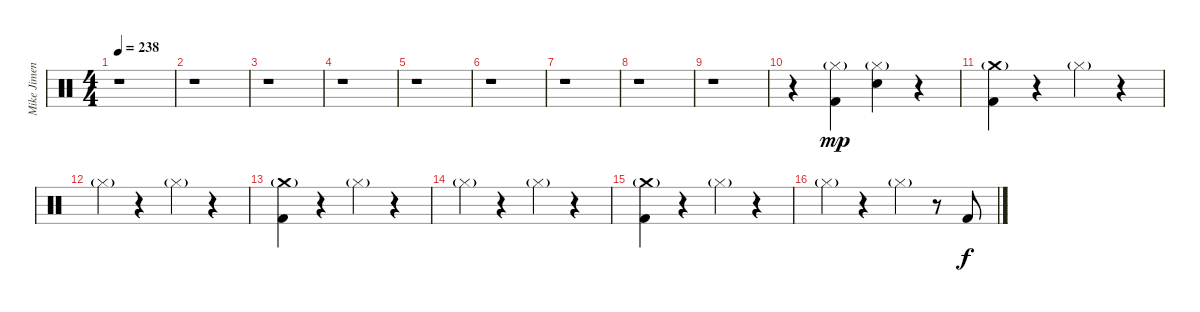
\track ("Mike Jimenez" "Mike Jimen") {instrument percussion}
\staff {score}
\articulation defaults
\ts (4 4)
\tempo 238
\clef neutral
\ks c
r.1{dy mp} |
r.1 |
r.1 |
r.1 |
r.1 |
r.1 |
r.1 |
r.1 |
r.1 |
r.4 ("Hi-Hat (closed)"{g} "Kick (hit) 2").4 ("Hi-Hat (closed)"{g} "Electric Snare (hit)").4 r.4 |
("Crash medium (hit)"{g} "Kick (hit) 2").4 r.4 "Hi-Hat (closed)"{g}.4 r.4 |
"Hi-Hat (closed)"{g}.4 r.4 "Hi-Hat (closed)"{g}.4 r.4 |
("Crash medium (hit)"{g} "Kick (hit) 2").4 r.4 "Hi-Hat (closed)"{g}.4 r.4 |
"Hi-Hat (closed)"{g}.4 r.4 "Hi-Hat (closed)"{g}.4 r.4 |
("Crash medium (hit)"{g} "Kick (hit) 2").4 r.4 "Hi-Hat (closed)"{g}.4 r.4 |
"Hi-Hat (closed)"{g}.4 r.4 "Hi-Hat (closed)"{g}.4 r.8 "Kick (hit) 2".8{dy f}
